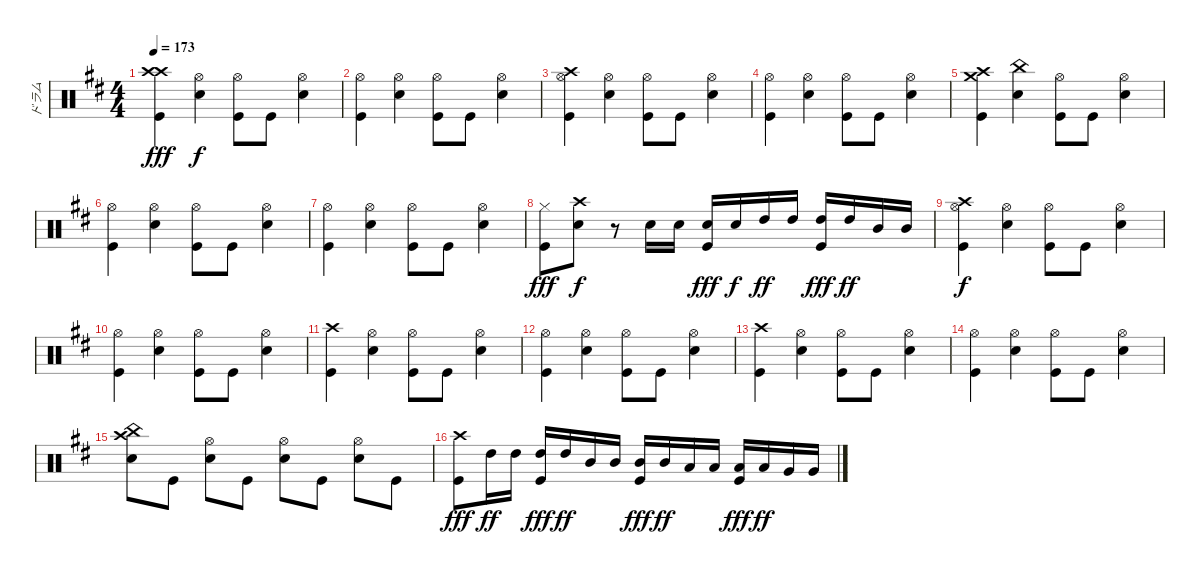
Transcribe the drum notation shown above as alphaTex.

\track ("ドラム" "ドラム") {mute instrument percussion}
\staff {score}
\articulation defaults
\ts (4 4)
\tempo 173
\clef neutral
\ks d
("Crash high (hit)" "Crash high (hit)" "Kick (hit)").4{dy fff volume 14} ("Hi-Hat (open)" "Snare (hit) 2").4{dy f} ("Hi-Hat (open)" "Kick (hit)").8 "Kick (hit)".8 ("Hi-Hat (open)" "Snare (hit) 2").4 |
("Hi-Hat (open)" "Kick (hit)").4 ("Hi-Hat (open)" "Snare (hit) 2").4 ("Hi-Hat (open)" "Kick (hit)").8 "Kick (hit)".8 ("Hi-Hat (open)" "Snare (hit) 2").4 |
("Crash high (hit)" "Hi-Hat (open)" "Kick (hit)").4 ("Hi-Hat (open)" "Snare (hit) 2").4 ("Hi-Hat (open)" "Kick (hit)").8 "Kick (hit)".8 ("Hi-Hat (open)" "Snare (hit) 2").4 |
("Hi-Hat (open)" "Kick (hit)").4 ("Hi-Hat (open)" "Snare (hit) 2").4 ("Hi-Hat (open)" "Kick (hit)").8 "Kick (hit)".8 ("Hi-Hat (open)" "Snare (hit) 2").4 |
("Crash high (hit)" "Crash medium (hit)" "Kick (hit)").4 ("China (hit)" "Snare (hit) 2").4 ("Hi-Hat (open)" "Kick (hit)").8 "Kick (hit)".8 ("Hi-Hat (open)" "Snare (hit) 2").4 |
("Hi-Hat (open)" "Kick (hit)").4 ("Hi-Hat (open)" "Snare (hit) 2").4 ("Hi-Hat (open)" "Kick (hit)").8 "Kick (hit)".8 ("Hi-Hat (open)" "Snare (hit) 2").4 |
("Hi-Hat (open)" "Kick (hit)").4 ("Hi-Hat (open)" "Snare (hit) 2").4 ("Hi-Hat (open)" "Kick (hit)").8 "Kick (hit)".8 ("Hi-Hat (open)" "Snare (hit) 2").4 |
("Hi-Hat (closed)" "Kick (hit)").8{dy fff} ("Crash high (hit)" "Snare (hit) 2").8{dy f} r.8 "Snare (hit) 2".16 "Snare (hit) 2".16 ("Snare (hit) 2" "Kick (hit)").16{dy fff} "Snare (hit) 2".16{dy f} "High Tom (hit)".16{dy ff} "High Tom (hit)".16 ("High Tom (hit)" "Kick (hit)").16{dy fff} "High Tom (hit)".16{dy ff} "Mid Tom (hit)".16 "Mid Tom (hit)".16 |
("Crash high (hit)" "Hi-Hat (open)" "Kick (hit)").4{dy f} ("Hi-Hat (open)" "Snare (hit) 2").4 ("Hi-Hat (open)" "Kick (hit)").8 "Kick (hit)".8 ("Hi-Hat (open)" "Snare (hit) 2").4 |
("Hi-Hat (open)" "Kick (hit)").4 ("Hi-Hat (open)" "Snare (hit) 2").4 ("Hi-Hat (open)" "Kick (hit)").8 "Kick (hit)".8 ("Hi-Hat (open)" "Snare (hit) 2").4 |
("Crash high (hit)" "Kick (hit)").4 ("Hi-Hat (open)" "Snare (hit) 2").4 ("Hi-Hat (open)" "Kick (hit)").8 "Kick (hit)".8 ("Hi-Hat (open)" "Snare (hit) 2").4 |
("Hi-Hat (open)" "Kick (hit)").4 ("Hi-Hat (open)" "Snare (hit) 2").4 ("Hi-Hat (open)" "Kick (hit)").8 "Kick (hit)".8 ("Hi-Hat (open)" "Snare (hit) 2").4 |
("Crash high (hit)" "Kick (hit)").4 ("Hi-Hat (open)" "Snare (hit) 2").4 ("Hi-Hat (open)" "Kick (hit)").8 "Kick (hit)".8 ("Hi-Hat (open)" "Snare (hit) 2").4 |
("Hi-Hat (open)" "Kick (hit)").4 ("Hi-Hat (open)" "Snare (hit) 2").4 ("Hi-Hat (open)" "Kick (hit)").8 "Kick (hit)".8 ("Hi-Hat (open)" "Snare (hit) 2").4 |
("Crash high (hit)" "China (hit)" "Snare (hit) 2").8 "Kick (hit)".8 ("Hi-Hat (open)" "Snare (hit) 2").8 "Kick (hit)".8 ("Hi-Hat (open)" "Snare (hit) 2").8 "Kick (hit)".8 ("Hi-Hat (open)" "Snare (hit) 2").8 "Kick (hit)".8 |
("Crash high (hit)" "Kick (hit)").8{dy fff} "High Tom (hit)".16{dy ff} "High Tom (hit)".16 ("High Tom (hit)" "Kick (hit)").16{dy fff} "High Tom (hit)".16{dy ff} "Mid Tom (hit)".16 "Mid Tom (hit)".16 ("Mid Tom (hit)" "Kick (hit)").16{dy fff} "Mid Tom (hit)".16{dy ff} "Low Tom (hit)".16 "Low Tom (hit)".16 ("Low Tom (hit)" "Kick (hit)").16{dy fff} "Low Tom (hit)".16{dy ff} "Very Low Tom (hit)".16 "Very Low Tom (hit)".16
